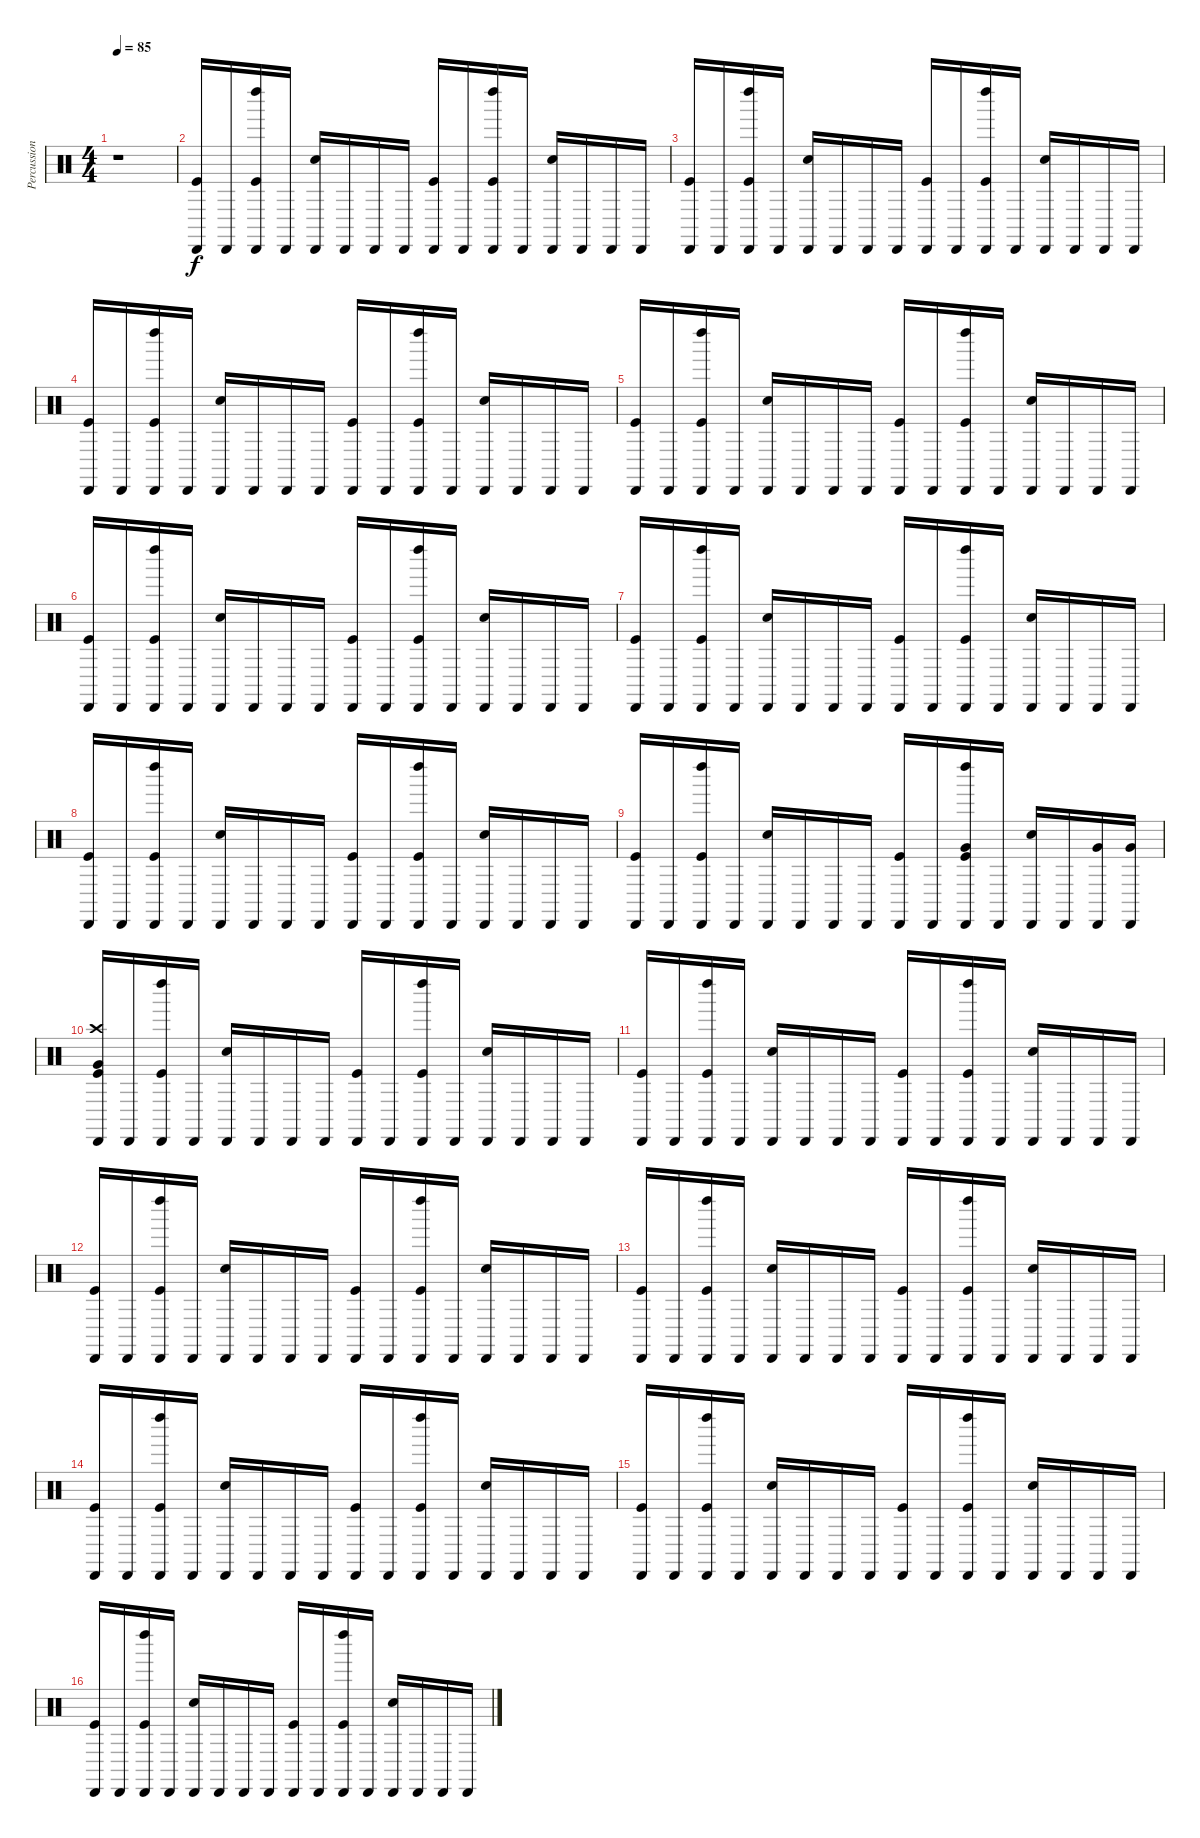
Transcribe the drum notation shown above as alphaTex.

\track ("Percussions" "Percussion") {instrument percussion}
\staff {score}
\articulation defaults
\ts (4 4)
\tempo 85
\clef neutral
\ks c
r.1{dy f} |
("Cabasa (hit)" "Kick (hit)").16 "Cabasa (hit)".16 ("Kick (hit)" "Cabasa (hit)" "Left Maraca (hit)").16 "Cabasa (hit)".16 ("Snare (hit) 2" "Cabasa (hit)").16 "Cabasa (hit)".16 "Cabasa (hit)".16 "Cabasa (hit)".16 ("Kick (hit)" "Cabasa (hit)").16 "Cabasa (hit)".16 ("Kick (hit)" "Cabasa (hit)" "Left Maraca (hit)").16 "Cabasa (hit)".16 ("Snare (hit) 2" "Cabasa (hit)").16 "Cabasa (hit)".16 "Cabasa (hit)".16 "Cabasa (hit)".16 |
("Kick (hit)" "Cabasa (hit)").16 "Cabasa (hit)".16 ("Kick (hit)" "Cabasa (hit)" "Left Maraca (hit)").16 "Cabasa (hit)".16 ("Snare (hit) 2" "Cabasa (hit)").16 "Cabasa (hit)".16 "Cabasa (hit)".16 "Cabasa (hit)".16 ("Kick (hit)" "Cabasa (hit)").16 "Cabasa (hit)".16 ("Kick (hit)" "Cabasa (hit)" "Left Maraca (hit)").16 "Cabasa (hit)".16 ("Snare (hit) 2" "Cabasa (hit)").16 "Cabasa (hit)".16 "Cabasa (hit)".16 "Cabasa (hit)".16 |
("Kick (hit)" "Cabasa (hit)").16 "Cabasa (hit)".16 ("Kick (hit)" "Cabasa (hit)" "Left Maraca (hit)").16 "Cabasa (hit)".16 ("Snare (hit) 2" "Cabasa (hit)").16 "Cabasa (hit)".16 "Cabasa (hit)".16 "Cabasa (hit)".16 ("Kick (hit)" "Cabasa (hit)").16 "Cabasa (hit)".16 ("Kick (hit)" "Cabasa (hit)" "Left Maraca (hit)").16 "Cabasa (hit)".16 ("Snare (hit) 2" "Cabasa (hit)").16 "Cabasa (hit)".16 "Cabasa (hit)".16 "Cabasa (hit)".16 |
("Cabasa (hit)" "Kick (hit)").16 "Cabasa (hit)".16 ("Kick (hit)" "Cabasa (hit)" "Left Maraca (hit)").16 "Cabasa (hit)".16 ("Snare (hit) 2" "Cabasa (hit)").16 "Cabasa (hit)".16 "Cabasa (hit)".16 "Cabasa (hit)".16 ("Kick (hit)" "Cabasa (hit)").16 "Cabasa (hit)".16 ("Kick (hit)" "Cabasa (hit)" "Left Maraca (hit)").16 "Cabasa (hit)".16 ("Snare (hit) 2" "Cabasa (hit)").16 "Cabasa (hit)".16 "Cabasa (hit)".16 "Cabasa (hit)".16 |
("Cabasa (hit)" "Kick (hit)").16 "Cabasa (hit)".16 ("Kick (hit)" "Cabasa (hit)" "Left Maraca (hit)").16 "Cabasa (hit)".16 ("Snare (hit) 2" "Cabasa (hit)").16 "Cabasa (hit)".16 "Cabasa (hit)".16 "Cabasa (hit)".16 ("Kick (hit)" "Cabasa (hit)").16 "Cabasa (hit)".16 ("Kick (hit)" "Cabasa (hit)" "Left Maraca (hit)").16 "Cabasa (hit)".16 ("Snare (hit) 2" "Cabasa (hit)").16 "Cabasa (hit)".16 "Cabasa (hit)".16 "Cabasa (hit)".16 |
("Kick (hit)" "Cabasa (hit)").16 "Cabasa (hit)".16 ("Kick (hit)" "Cabasa (hit)" "Left Maraca (hit)").16 "Cabasa (hit)".16 ("Snare (hit) 2" "Cabasa (hit)").16 "Cabasa (hit)".16 "Cabasa (hit)".16 "Cabasa (hit)".16 ("Kick (hit)" "Cabasa (hit)").16 "Cabasa (hit)".16 ("Kick (hit)" "Cabasa (hit)" "Left Maraca (hit)").16 "Cabasa (hit)".16 ("Snare (hit) 2" "Cabasa (hit)").16 "Cabasa (hit)".16 "Cabasa (hit)".16 "Cabasa (hit)".16 |
("Kick (hit)" "Cabasa (hit)").16 "Cabasa (hit)".16 ("Kick (hit)" "Cabasa (hit)" "Left Maraca (hit)").16 "Cabasa (hit)".16 ("Snare (hit) 2" "Cabasa (hit)").16 "Cabasa (hit)".16 "Cabasa (hit)".16 "Cabasa (hit)".16 ("Kick (hit)" "Cabasa (hit)").16 "Cabasa (hit)".16 ("Kick (hit)" "Cabasa (hit)" "Left Maraca (hit)").16 "Cabasa (hit)".16 ("Snare (hit) 2" "Cabasa (hit)").16 "Cabasa (hit)".16 "Cabasa (hit)".16 "Cabasa (hit)".16 |
("Cabasa (hit)" "Kick (hit)").16 "Cabasa (hit)".16 ("Kick (hit)" "Cabasa (hit)" "Left Maraca (hit)").16 "Cabasa (hit)".16 ("Snare (hit) 2" "Cabasa (hit)").16 "Cabasa (hit)".16 "Cabasa (hit)".16 "Cabasa (hit)".16 ("Kick (hit)" "Cabasa (hit)").16 "Cabasa (hit)".16 ("Kick (hit)" "Cabasa (hit)" "Very Low Tom (hit)" "Left Maraca (hit)").16 "Cabasa (hit)".16 ("Snare (hit) 2" "Cabasa (hit)").16 "Cabasa (hit)".16 ("Cabasa (hit)" "Very Low Tom (hit)").16 ("Cabasa (hit)" "Very Low Tom (hit)").16 |
("Cabasa (hit)" "Kick (hit)" "Very Low Tom (hit)" "Crash high (hit)").16 "Cabasa (hit)".16 ("Kick (hit)" "Cabasa (hit)" "Left Maraca (hit)").16 "Cabasa (hit)".16 ("Snare (hit) 2" "Cabasa (hit)").16 "Cabasa (hit)".16 "Cabasa (hit)".16 "Cabasa (hit)".16 ("Kick (hit)" "Cabasa (hit)").16 "Cabasa (hit)".16 ("Kick (hit)" "Cabasa (hit)" "Left Maraca (hit)").16 "Cabasa (hit)".16 ("Snare (hit) 2" "Cabasa (hit)").16 "Cabasa (hit)".16 "Cabasa (hit)".16 "Cabasa (hit)".16 |
("Cabasa (hit)" "Kick (hit)").16 "Cabasa (hit)".16 ("Kick (hit)" "Cabasa (hit)" "Left Maraca (hit)").16 "Cabasa (hit)".16 ("Snare (hit) 2" "Cabasa (hit)").16 "Cabasa (hit)".16 "Cabasa (hit)".16 "Cabasa (hit)".16 ("Kick (hit)" "Cabasa (hit)").16 "Cabasa (hit)".16 ("Kick (hit)" "Cabasa (hit)" "Left Maraca (hit)").16 "Cabasa (hit)".16 ("Snare (hit) 2" "Cabasa (hit)").16 "Cabasa (hit)".16 "Cabasa (hit)".16 "Cabasa (hit)".16 |
("Cabasa (hit)" "Kick (hit)").16 "Cabasa (hit)".16 ("Kick (hit)" "Cabasa (hit)" "Left Maraca (hit)").16 "Cabasa (hit)".16 ("Snare (hit) 2" "Cabasa (hit)").16 "Cabasa (hit)".16 "Cabasa (hit)".16 "Cabasa (hit)".16 ("Kick (hit)" "Cabasa (hit)").16 "Cabasa (hit)".16 ("Kick (hit)" "Cabasa (hit)" "Left Maraca (hit)").16 "Cabasa (hit)".16 ("Snare (hit) 2" "Cabasa (hit)").16 "Cabasa (hit)".16 "Cabasa (hit)".16 "Cabasa (hit)".16 |
("Cabasa (hit)" "Kick (hit)").16 "Cabasa (hit)".16 ("Kick (hit)" "Cabasa (hit)" "Left Maraca (hit)").16 "Cabasa (hit)".16 ("Snare (hit) 2" "Cabasa (hit)").16 "Cabasa (hit)".16 "Cabasa (hit)".16 "Cabasa (hit)".16 ("Kick (hit)" "Cabasa (hit)").16 "Cabasa (hit)".16 ("Kick (hit)" "Cabasa (hit)" "Left Maraca (hit)").16 "Cabasa (hit)".16 ("Snare (hit) 2" "Cabasa (hit)").16 "Cabasa (hit)".16 "Cabasa (hit)".16 "Cabasa (hit)".16 |
("Cabasa (hit)" "Kick (hit)").16 "Cabasa (hit)".16 ("Kick (hit)" "Cabasa (hit)" "Left Maraca (hit)").16 "Cabasa (hit)".16 ("Snare (hit) 2" "Cabasa (hit)").16 "Cabasa (hit)".16 "Cabasa (hit)".16 "Cabasa (hit)".16 ("Kick (hit)" "Cabasa (hit)").16 "Cabasa (hit)".16 ("Kick (hit)" "Cabasa (hit)" "Left Maraca (hit)").16 "Cabasa (hit)".16 ("Snare (hit) 2" "Cabasa (hit)").16 "Cabasa (hit)".16 "Cabasa (hit)".16 "Cabasa (hit)".16 |
("Cabasa (hit)" "Kick (hit)").16 "Cabasa (hit)".16 ("Kick (hit)" "Cabasa (hit)" "Left Maraca (hit)").16 "Cabasa (hit)".16 ("Snare (hit) 2" "Cabasa (hit)").16 "Cabasa (hit)".16 "Cabasa (hit)".16 "Cabasa (hit)".16 ("Kick (hit)" "Cabasa (hit)").16 "Cabasa (hit)".16 ("Kick (hit)" "Cabasa (hit)" "Left Maraca (hit)").16 "Cabasa (hit)".16 ("Snare (hit) 2" "Cabasa (hit)").16 "Cabasa (hit)".16 "Cabasa (hit)".16 "Cabasa (hit)".16 |
("Cabasa (hit)" "Kick (hit)").16 "Cabasa (hit)".16 ("Kick (hit)" "Cabasa (hit)" "Left Maraca (hit)").16 "Cabasa (hit)".16 ("Snare (hit) 2" "Cabasa (hit)").16 "Cabasa (hit)".16 "Cabasa (hit)".16 "Cabasa (hit)".16 ("Kick (hit)" "Cabasa (hit)").16 "Cabasa (hit)".16 ("Kick (hit)" "Cabasa (hit)" "Left Maraca (hit)").16 "Cabasa (hit)".16 ("Snare (hit) 2" "Cabasa (hit)").16 "Cabasa (hit)".16 "Cabasa (hit)".16 "Cabasa (hit)".16
